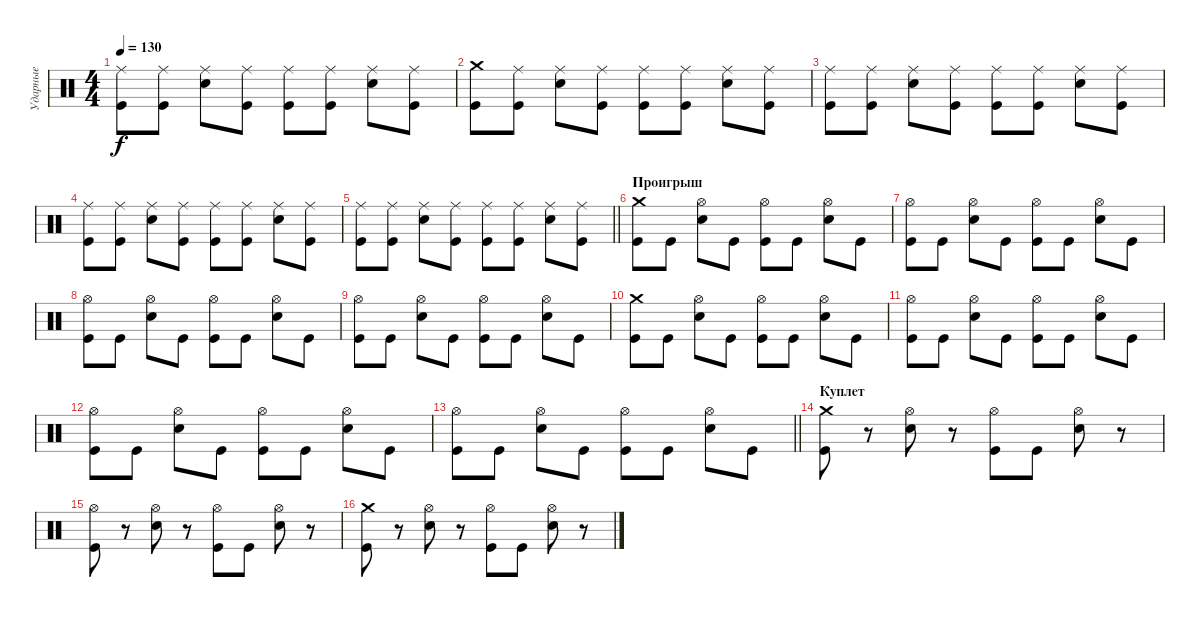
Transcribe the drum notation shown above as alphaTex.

\track ("Ударные" "Ударные") {instrument percussion}
\staff {score}
\articulation defaults
\ts (4 4)
\tempo 130
\clef neutral
\ks c
("Ride (middle)" "Kick (hit)").8{dy f} ("Ride (middle)" "Kick (hit)").8 ("Ride (middle)" "Electric Snare (hit)").8 ("Ride (middle)" "Kick (hit)").8 ("Ride (middle)" "Kick (hit)").8 ("Ride (middle)" "Kick (hit)").8 ("Ride (middle)" "Electric Snare (hit)").8 ("Ride (middle)" "Kick (hit)").8 |
("Crash medium (hit)" "Kick (hit)").8 ("Ride (middle)" "Kick (hit)").8 ("Ride (middle)" "Electric Snare (hit)").8 ("Ride (middle)" "Kick (hit)").8 ("Ride (middle)" "Kick (hit)").8 ("Ride (middle)" "Kick (hit)").8 ("Ride (middle)" "Electric Snare (hit)").8 ("Ride (middle)" "Kick (hit)").8 |
("Ride (middle)" "Kick (hit)").8 ("Ride (middle)" "Kick (hit)").8 ("Ride (middle)" "Electric Snare (hit)").8 ("Ride (middle)" "Kick (hit)").8 ("Ride (middle)" "Kick (hit)").8 ("Ride (middle)" "Kick (hit)").8 ("Ride (middle)" "Electric Snare (hit)").8 ("Ride (middle)" "Kick (hit)").8 |
("Ride (middle)" "Kick (hit)").8 ("Ride (middle)" "Kick (hit)").8 ("Ride (middle)" "Electric Snare (hit)").8 ("Ride (middle)" "Kick (hit)").8 ("Ride (middle)" "Kick (hit)").8 ("Ride (middle)" "Kick (hit)").8 ("Ride (middle)" "Electric Snare (hit)").8 ("Ride (middle)" "Kick (hit)").8 |
\barLineRight lightlight
("Ride (middle)" "Kick (hit)").8 ("Ride (middle)" "Kick (hit)").8 ("Ride (middle)" "Electric Snare (hit)").8 ("Ride (middle)" "Kick (hit)").8 ("Ride (middle)" "Kick (hit)").8 ("Ride (middle)" "Kick (hit)").8 ("Ride (middle)" "Electric Snare (hit)").8 ("Ride (middle)" "Kick (hit)").8 |
\section ("" "Проигрыш")
("Crash medium (hit)" "Kick (hit)").8 "Kick (hit)".8 ("Hi-Hat (open)" "Electric Snare (hit)").8 "Kick (hit)".8 ("Hi-Hat (open)" "Kick (hit)").8 "Kick (hit)".8 ("Hi-Hat (open)" "Electric Snare (hit)").8 "Kick (hit)".8 |
("Hi-Hat (open)" "Kick (hit)").8 "Kick (hit)".8 ("Hi-Hat (open)" "Electric Snare (hit)").8 "Kick (hit)".8 ("Hi-Hat (open)" "Kick (hit)").8 "Kick (hit)".8 ("Hi-Hat (open)" "Electric Snare (hit)").8 "Kick (hit)".8 |
("Hi-Hat (open)" "Kick (hit)").8 "Kick (hit)".8 ("Hi-Hat (open)" "Electric Snare (hit)").8 "Kick (hit)".8 ("Hi-Hat (open)" "Kick (hit)").8 "Kick (hit)".8 ("Hi-Hat (open)" "Electric Snare (hit)").8 "Kick (hit)".8 |
("Hi-Hat (open)" "Kick (hit)").8 "Kick (hit)".8 ("Hi-Hat (open)" "Electric Snare (hit)").8 "Kick (hit)".8 ("Hi-Hat (open)" "Kick (hit)").8 "Kick (hit)".8 ("Hi-Hat (open)" "Electric Snare (hit)").8 "Kick (hit)".8 |
("Crash medium (hit)" "Kick (hit)").8 "Kick (hit)".8 ("Hi-Hat (open)" "Electric Snare (hit)").8 "Kick (hit)".8 ("Hi-Hat (open)" "Kick (hit)").8 "Kick (hit)".8 ("Hi-Hat (open)" "Electric Snare (hit)").8 "Kick (hit)".8 |
("Hi-Hat (open)" "Kick (hit)").8 "Kick (hit)".8 ("Hi-Hat (open)" "Electric Snare (hit)").8 "Kick (hit)".8 ("Hi-Hat (open)" "Kick (hit)").8 "Kick (hit)".8 ("Hi-Hat (open)" "Electric Snare (hit)").8 "Kick (hit)".8 |
("Hi-Hat (open)" "Kick (hit)").8 "Kick (hit)".8 ("Hi-Hat (open)" "Electric Snare (hit)").8 "Kick (hit)".8 ("Hi-Hat (open)" "Kick (hit)").8 "Kick (hit)".8 ("Hi-Hat (open)" "Electric Snare (hit)").8 "Kick (hit)".8 |
\barLineRight lightlight
("Hi-Hat (open)" "Kick (hit)").8 "Kick (hit)".8 ("Hi-Hat (open)" "Electric Snare (hit)").8 "Kick (hit)".8 ("Hi-Hat (open)" "Kick (hit)").8 "Kick (hit)".8 ("Hi-Hat (open)" "Electric Snare (hit)").8 "Kick (hit)".8 |
\section ("" "Куплет")
("Crash medium (hit)" "Kick (hit)").8 r.8 ("Hi-Hat (open)" "Electric Snare (hit)").8 r.8 ("Hi-Hat (open)" "Kick (hit)").8 "Kick (hit)".8 ("Hi-Hat (open)" "Electric Snare (hit)").8 r.8 |
("Hi-Hat (open)" "Kick (hit)").8 r.8 ("Hi-Hat (open)" "Electric Snare (hit)").8 r.8 ("Hi-Hat (open)" "Kick (hit)").8 "Kick (hit)".8 ("Hi-Hat (open)" "Electric Snare (hit)").8 r.8 |
("Crash medium (hit)" "Kick (hit)").8 r.8 ("Hi-Hat (open)" "Electric Snare (hit)").8 r.8 ("Hi-Hat (open)" "Kick (hit)").8 "Kick (hit)".8 ("Hi-Hat (open)" "Electric Snare (hit)").8 r.8
